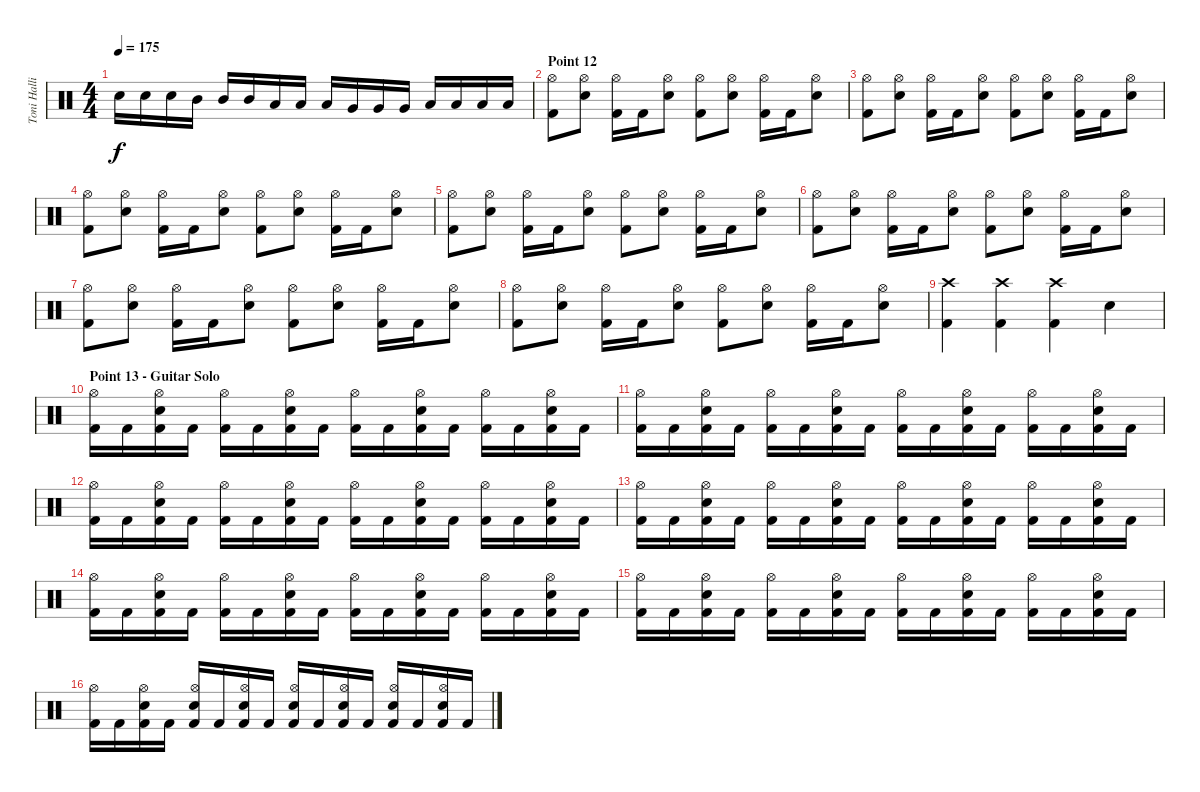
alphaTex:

\track ("Toni Hallio" "Toni Halli") {instrument percussion}
\staff {score}
\articulation defaults
\ts (4 4)
\tempo 175
\clef neutral
\ks c "Snare (hit) 2".16{dy f} "Snare (hit) 2".16 "Snare (hit) 2".16 "Mid Tom (hit)".16 "Mid Tom (hit)".16 "Mid Tom (hit)".16 "Low Tom (hit)".16 "Low Tom (hit)".16 "Low Tom (hit)".16 "Very Low Tom (hit)".16 "Very Low Tom (hit)".16 "Very Low Tom (hit)".16 "Low Floor Tom (hit)".16 "Low Floor Tom (hit)".16 "Low Floor Tom (hit)".16 "Low Floor Tom (hit)".16
|
\section ("" "Point 12")
("Hi-Hat (open)" "Kick (hit) 2").8 ("Hi-Hat (open)" "Snare (hit) 2").8 ("Hi-Hat (open)" "Kick (hit) 2").16 "Kick (hit) 2".16 ("Hi-Hat (open)" "Snare (hit) 2").8 ("Hi-Hat (open)" "Kick (hit) 2").8 ("Hi-Hat (open)" "Snare (hit) 2").8 ("Hi-Hat (open)" "Kick (hit) 2").16 "Kick (hit) 2".16 ("Hi-Hat (open)" "Snare (hit) 2").8 |
("Hi-Hat (open)" "Kick (hit) 2").8 ("Hi-Hat (open)" "Snare (hit) 2").8 ("Hi-Hat (open)" "Kick (hit) 2").16 "Kick (hit) 2".16 ("Hi-Hat (open)" "Snare (hit) 2").8 ("Hi-Hat (open)" "Kick (hit) 2").8 ("Hi-Hat (open)" "Snare (hit) 2").8 ("Hi-Hat (open)" "Kick (hit) 2").16 "Kick (hit) 2".16 ("Hi-Hat (open)" "Snare (hit) 2").8 |
("Hi-Hat (open)" "Kick (hit) 2").8 ("Hi-Hat (open)" "Snare (hit) 2").8 ("Hi-Hat (open)" "Kick (hit) 2").16 "Kick (hit) 2".16 ("Hi-Hat (open)" "Snare (hit) 2").8 ("Hi-Hat (open)" "Kick (hit) 2").8 ("Hi-Hat (open)" "Snare (hit) 2").8 ("Hi-Hat (open)" "Kick (hit) 2").16 "Kick (hit) 2".16 ("Hi-Hat (open)" "Snare (hit) 2").8 |
("Hi-Hat (open)" "Kick (hit) 2").8 ("Hi-Hat (open)" "Snare (hit) 2").8 ("Hi-Hat (open)" "Kick (hit) 2").16 "Kick (hit) 2".16 ("Hi-Hat (open)" "Snare (hit) 2").8 ("Hi-Hat (open)" "Kick (hit) 2").8 ("Hi-Hat (open)" "Snare (hit) 2").8 ("Hi-Hat (open)" "Kick (hit) 2").16 "Kick (hit) 2".16 ("Hi-Hat (open)" "Snare (hit) 2").8 |
("Hi-Hat (open)" "Kick (hit) 2").8 ("Hi-Hat (open)" "Snare (hit) 2").8 ("Hi-Hat (open)" "Kick (hit) 2").16 "Kick (hit) 2".16 ("Hi-Hat (open)" "Snare (hit) 2").8 ("Hi-Hat (open)" "Kick (hit) 2").8 ("Hi-Hat (open)" "Snare (hit) 2").8 ("Hi-Hat (open)" "Kick (hit) 2").16 "Kick (hit) 2".16 ("Hi-Hat (open)" "Snare (hit) 2").8 |
("Hi-Hat (open)" "Kick (hit) 2").8 ("Hi-Hat (open)" "Snare (hit) 2").8 ("Hi-Hat (open)" "Kick (hit) 2").16 "Kick (hit) 2".16 ("Hi-Hat (open)" "Snare (hit) 2").8 ("Hi-Hat (open)" "Kick (hit) 2").8 ("Hi-Hat (open)" "Snare (hit) 2").8 ("Hi-Hat (open)" "Kick (hit) 2").16 "Kick (hit) 2".16 ("Hi-Hat (open)" "Snare (hit) 2").8 |
("Hi-Hat (open)" "Kick (hit) 2").8 ("Hi-Hat (open)" "Snare (hit) 2").8 ("Hi-Hat (open)" "Kick (hit) 2").16 "Kick (hit) 2".16 ("Hi-Hat (open)" "Snare (hit) 2").8 ("Hi-Hat (open)" "Kick (hit) 2").8 ("Hi-Hat (open)" "Snare (hit) 2").8 ("Hi-Hat (open)" "Kick (hit) 2").16 "Kick (hit) 2".16 ("Hi-Hat (open)" "Snare (hit) 2").8 |
("Crash high (hit)" "Kick (hit) 2").4 ("Crash high (hit)" "Kick (hit) 2").4 ("Crash high (hit)" "Kick (hit) 2").4 "Snare (hit) 2".4 |
\section ("" "Point 13 - Guitar Solo")
("Hi-Hat (open)" "Kick (hit) 2").16 "Kick (hit) 2".16 ("Hi-Hat (open)" "Snare (hit) 2" "Kick (hit) 2").16 "Kick (hit) 2".16 ("Hi-Hat (open)" "Kick (hit) 2").16 "Kick (hit) 2".16 ("Hi-Hat (open)" "Snare (hit) 2" "Kick (hit) 2").16 "Kick (hit) 2".16 ("Hi-Hat (open)" "Kick (hit) 2").16 "Kick (hit) 2".16 ("Hi-Hat (open)" "Snare (hit) 2" "Kick (hit) 2").16 "Kick (hit) 2".16 ("Hi-Hat (open)" "Kick (hit) 2").16 "Kick (hit) 2".16 ("Hi-Hat (open)" "Snare (hit) 2" "Kick (hit) 2").16 "Kick (hit) 2".16 |
("Hi-Hat (open)" "Kick (hit) 2").16 "Kick (hit) 2".16 ("Hi-Hat (open)" "Snare (hit) 2" "Kick (hit) 2").16 "Kick (hit) 2".16 ("Hi-Hat (open)" "Kick (hit) 2").16 "Kick (hit) 2".16 ("Hi-Hat (open)" "Snare (hit) 2" "Kick (hit) 2").16 "Kick (hit) 2".16 ("Hi-Hat (open)" "Kick (hit) 2").16 "Kick (hit) 2".16 ("Hi-Hat (open)" "Snare (hit) 2" "Kick (hit) 2").16 "Kick (hit) 2".16 ("Hi-Hat (open)" "Kick (hit) 2").16 "Kick (hit) 2".16 ("Hi-Hat (open)" "Snare (hit) 2" "Kick (hit) 2").16 "Kick (hit) 2".16 |
("Hi-Hat (open)" "Kick (hit) 2").16 "Kick (hit) 2".16 ("Hi-Hat (open)" "Snare (hit) 2" "Kick (hit) 2").16 "Kick (hit) 2".16 ("Hi-Hat (open)" "Kick (hit) 2").16 "Kick (hit) 2".16 ("Hi-Hat (open)" "Snare (hit) 2" "Kick (hit) 2").16 "Kick (hit) 2".16 ("Hi-Hat (open)" "Kick (hit) 2").16 "Kick (hit) 2".16 ("Hi-Hat (open)" "Snare (hit) 2" "Kick (hit) 2").16 "Kick (hit) 2".16 ("Hi-Hat (open)" "Kick (hit) 2").16 "Kick (hit) 2".16 ("Hi-Hat (open)" "Snare (hit) 2" "Kick (hit) 2").16 "Kick (hit) 2".16 |
("Hi-Hat (open)" "Kick (hit) 2").16 "Kick (hit) 2".16 ("Hi-Hat (open)" "Snare (hit) 2" "Kick (hit) 2").16 "Kick (hit) 2".16 ("Hi-Hat (open)" "Kick (hit) 2").16 "Kick (hit) 2".16 ("Hi-Hat (open)" "Snare (hit) 2" "Kick (hit) 2").16 "Kick (hit) 2".16 ("Hi-Hat (open)" "Kick (hit) 2").16 "Kick (hit) 2".16 ("Hi-Hat (open)" "Snare (hit) 2" "Kick (hit) 2").16 "Kick (hit) 2".16 ("Hi-Hat (open)" "Kick (hit) 2").16 "Kick (hit) 2".16 ("Hi-Hat (open)" "Snare (hit) 2" "Kick (hit) 2").16 "Kick (hit) 2".16 |
("Hi-Hat (open)" "Kick (hit) 2").16 "Kick (hit) 2".16 ("Hi-Hat (open)" "Snare (hit) 2" "Kick (hit) 2").16 "Kick (hit) 2".16 ("Hi-Hat (open)" "Kick (hit) 2").16 "Kick (hit) 2".16 ("Hi-Hat (open)" "Snare (hit) 2" "Kick (hit) 2").16 "Kick (hit) 2".16 ("Hi-Hat (open)" "Kick (hit) 2").16 "Kick (hit) 2".16 ("Hi-Hat (open)" "Snare (hit) 2" "Kick (hit) 2").16 "Kick (hit) 2".16 ("Hi-Hat (open)" "Kick (hit) 2").16 "Kick (hit) 2".16 ("Hi-Hat (open)" "Snare (hit) 2" "Kick (hit) 2").16 "Kick (hit) 2".16 |
("Hi-Hat (open)" "Kick (hit) 2").16 "Kick (hit) 2".16 ("Hi-Hat (open)" "Snare (hit) 2" "Kick (hit) 2").16 "Kick (hit) 2".16 ("Hi-Hat (open)" "Kick (hit) 2").16 "Kick (hit) 2".16 ("Hi-Hat (open)" "Snare (hit) 2" "Kick (hit) 2").16 "Kick (hit) 2".16 ("Hi-Hat (open)" "Kick (hit) 2").16 "Kick (hit) 2".16 ("Hi-Hat (open)" "Snare (hit) 2" "Kick (hit) 2").16 "Kick (hit) 2".16 ("Hi-Hat (open)" "Kick (hit) 2").16 "Kick (hit) 2".16 ("Hi-Hat (open)" "Snare (hit) 2" "Kick (hit) 2").16 "Kick (hit) 2".16 |
("Hi-Hat (open)" "Kick (hit) 2").16 "Kick (hit) 2".16 ("Hi-Hat (open)" "Snare (hit) 2" "Kick (hit) 2").16 "Kick (hit) 2".16 ("Hi-Hat (open)" "Snare (hit) 2" "Kick (hit) 2").16 "Kick (hit) 2".16 ("Hi-Hat (open)" "Snare (hit) 2" "Kick (hit) 2").16 "Kick (hit) 2".16 ("Hi-Hat (open)" "Snare (hit) 2" "Kick (hit) 2").16 "Kick (hit) 2".16 ("Hi-Hat (open)" "Snare (hit) 2" "Kick (hit) 2").16 "Kick (hit) 2".16 ("Hi-Hat (open)" "Snare (hit) 2" "Kick (hit) 2").16 "Kick (hit) 2".16 ("Hi-Hat (open)" "Snare (hit) 2" "Kick (hit) 2").16 "Kick (hit) 2".16
